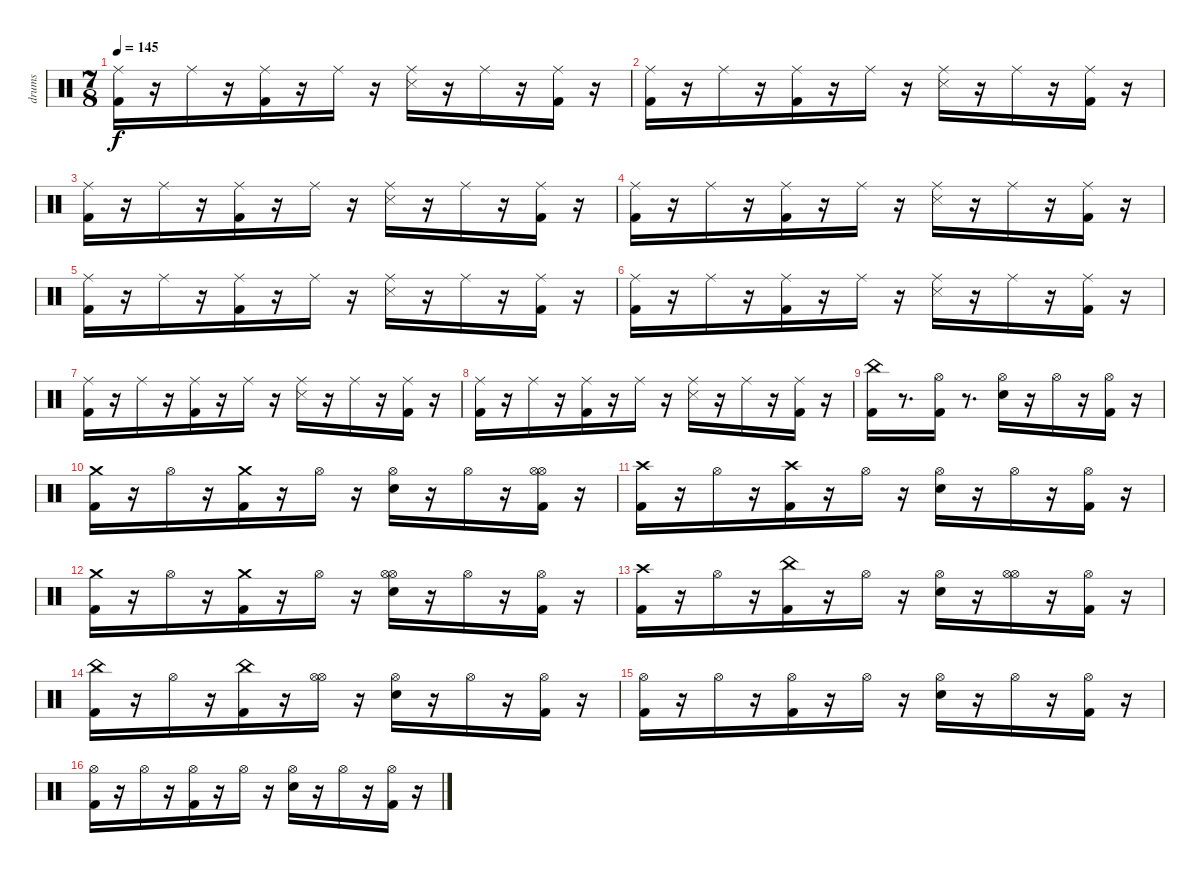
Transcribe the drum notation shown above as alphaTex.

\track ("drums" "drums") {instrument percussion}
\staff {score}
\articulation defaults
\ts (7 8)
\tempo 145
\clef neutral
\ks c
("Kick (hit) 2" "Ride (middle)").16{dy f} r.16 "Ride (middle)".16 r.16 ("Kick (hit) 2" "Ride (middle)").16 r.16 "Ride (middle)".16 r.16 ("Snare (side stick) 3" "Ride (middle)").16 r.16 "Ride (middle)".16 r.16 ("Kick (hit) 2" "Ride (middle)").16 r.16 |
("Kick (hit) 2" "Ride (middle)").16 r.16 "Ride (middle)".16 r.16 ("Kick (hit) 2" "Ride (middle)").16 r.16 "Ride (middle)".16 r.16 ("Snare (side stick) 3" "Ride (middle)").16 r.16 "Ride (middle)".16 r.16 ("Kick (hit) 2" "Ride (middle)").16 r.16 |
("Kick (hit) 2" "Ride (middle)").16 r.16 "Ride (middle)".16 r.16 ("Kick (hit) 2" "Ride (middle)").16 r.16 "Ride (middle)".16 r.16 ("Snare (side stick) 3" "Ride (middle)").16 r.16 "Ride (middle)".16 r.16 ("Kick (hit) 2" "Ride (middle)").16 r.16 |
("Kick (hit) 2" "Ride (middle)").16 r.16 "Ride (middle)".16 r.16 ("Kick (hit) 2" "Ride (middle)").16 r.16 "Ride (middle)".16 r.16 ("Snare (side stick) 3" "Ride (middle)").16 r.16 "Ride (middle)".16 r.16 ("Kick (hit) 2" "Ride (middle)").16 r.16 |
("Kick (hit) 2" "Ride (middle)").16 r.16 "Ride (middle)".16 r.16 ("Kick (hit) 2" "Ride (middle)").16 r.16 "Ride (middle)".16 r.16 ("Snare (side stick) 3" "Ride (middle)").16 r.16 "Ride (middle)".16 r.16 ("Kick (hit) 2" "Ride (middle)").16 r.16 |
("Kick (hit) 2" "Ride (middle)").16 r.16 "Ride (middle)".16 r.16 ("Kick (hit) 2" "Ride (middle)").16 r.16 "Ride (middle)".16 r.16 ("Snare (side stick) 3" "Ride (middle)").16 r.16 "Ride (middle)".16 r.16 ("Kick (hit) 2" "Ride (middle)").16 r.16 |
("Kick (hit) 2" "Ride (middle)").16 r.16 "Ride (middle)".16 r.16 ("Kick (hit) 2" "Ride (middle)").16 r.16 "Ride (middle)".16 r.16 ("Snare (side stick) 3" "Ride (middle)").16 r.16 "Ride (middle)".16 r.16 ("Kick (hit) 2" "Ride (middle)").16 r.16 |
("Kick (hit) 2" "Ride (middle)").16 r.16 "Ride (middle)".16 r.16 ("Kick (hit) 2" "Ride (middle)").16 r.16 "Ride (middle)".16 r.16 ("Snare (side stick) 3" "Ride (middle)").16 r.16 "Ride (middle)".16 r.16 ("Kick (hit) 2" "Ride (middle)").16 r.16 |
("Kick (hit) 2" "China (hit)").16 r.8{d} ("Kick (hit) 2" "Hi-Hat (open)").16 r.8{d} ("Snare (hit) 2" "Hi-Hat (open)").16 r.16 "Hi-Hat (open)".16 r.16 ("Kick (hit) 2" "Hi-Hat (open)").16 r.16 |
("Kick (hit) 2" "Crash medium (hit)").16 r.16 "Hi-Hat (open)".16 r.16 ("Kick (hit) 2" "Crash medium (hit)").16 r.16 "Hi-Hat (open)".16 r.16 ("Snare (hit) 2" "Hi-Hat (open)").16 r.16 "Hi-Hat (open)".16 r.16 ("Kick (hit) 2" "Hi-Hat (open)" "Hi-Hat (open)").16 r.16 |
("Kick (hit) 2" "Crash high (hit)").16 r.16 "Hi-Hat (open)".16 r.16 ("Kick (hit) 2" "Crash high (hit)").16 r.16 "Hi-Hat (open)".16 r.16 ("Snare (hit) 2" "Hi-Hat (open)").16 r.16 "Hi-Hat (open)".16 r.16 ("Kick (hit) 2" "Hi-Hat (open)").16 r.16 |
("Kick (hit) 2" "Crash medium (hit)").16 r.16 "Hi-Hat (open)".16 r.16 ("Kick (hit) 2" "Crash medium (hit)").16 r.16 "Hi-Hat (open)".16 r.16 ("Snare (hit) 2" "Hi-Hat (open)" "Hi-Hat (open)").16 r.16 "Hi-Hat (open)".16 r.16 ("Kick (hit) 2" "Hi-Hat (open)").16 r.16 |
("Kick (hit) 2" "Crash high (hit)").16 r.16 "Hi-Hat (open)".16 r.16 ("Kick (hit) 2" "China (hit)").16 r.16 "Hi-Hat (open)".16 r.16 ("Snare (hit) 2" "Hi-Hat (open)").16 r.16 ("Hi-Hat (open)" "Hi-Hat (open)").16 r.16 ("Kick (hit) 2" "Hi-Hat (open)").16 r.16 |
("Kick (hit) 2" "China (hit)").16 r.16 "Hi-Hat (open)".16 r.16 ("Kick (hit) 2" "China (hit)").16 r.16 ("Hi-Hat (open)" "Hi-Hat (open)").16 r.16 ("Snare (hit) 2" "Hi-Hat (open)").16 r.16 "Hi-Hat (open)".16 r.16 ("Kick (hit) 2" "Hi-Hat (open)").16 r.16 |
("Kick (hit) 2" "Hi-Hat (open)").16 r.16 "Hi-Hat (open)".16 r.16 ("Kick (hit) 2" "Hi-Hat (open)").16 r.16 "Hi-Hat (open)".16 r.16 ("Snare (hit) 2" "Hi-Hat (open)").16 r.16 "Hi-Hat (open)".16 r.16 ("Kick (hit) 2" "Hi-Hat (open)").16 r.16 |
("Kick (hit) 2" "Hi-Hat (open)").16 r.16 "Hi-Hat (open)".16 r.16 ("Kick (hit) 2" "Hi-Hat (open)").16 r.16 "Hi-Hat (open)".16 r.16 ("Snare (hit) 2" "Hi-Hat (open)").16 r.16 "Hi-Hat (open)".16 r.16 ("Kick (hit) 2" "Hi-Hat (open)").16 r.16
